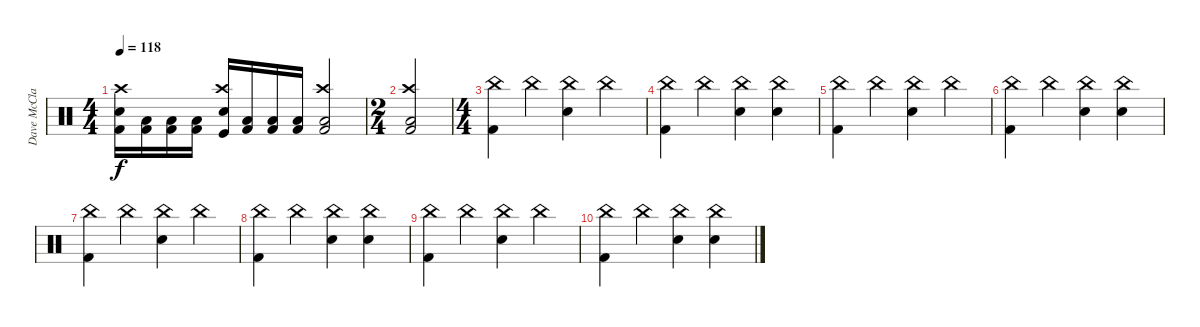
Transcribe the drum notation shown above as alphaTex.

\track ("Dave McClain" "Dave McCla") {instrument percussion}
\staff {score}
\articulation defaults
\ts (4 4)
\tempo 118
\clef neutral
\ks c
("Kick (hit) 2" "Snare (hit) 2" "Crash high (hit)").16{dy f} ("Kick (hit) 2" "Low Floor Tom (hit)").16 ("Kick (hit) 2" "Low Floor Tom (hit)").16 ("Kick (hit) 2" "Low Floor Tom (hit)").16 ("Kick (hit)" "Snare (hit) 2" "Crash high (hit)").16 ("Kick (hit) 2" "Low Floor Tom (hit)").16 ("Kick (hit) 2" "Low Floor Tom (hit)").16 ("Kick (hit) 2" "Low Floor Tom (hit)").16 ("Kick (hit) 2" "Low Floor Tom (hit)" "Crash high (hit)").2 |
\ts (2 4)
("Kick (hit) 2" "Low Floor Tom (hit)" "Crash high (hit)").2 |
\ts (4 4)
("Kick (hit) 2" "China (hit)").4 "China (hit)".4 ("Snare (hit) 2" "China (hit)").4 "China (hit)".4 |
("Kick (hit) 2" "China (hit)").4 "China (hit)".4 ("Snare (hit) 2" "China (hit)").4 ("Snare (hit) 2" "China (hit)").4 |
("Kick (hit) 2" "China (hit)").4 "China (hit)".4 ("Snare (hit) 2" "China (hit)").4 "China (hit)".4 |
("Kick (hit) 2" "China (hit)").4 "China (hit)".4 ("Snare (hit) 2" "China (hit)").4 ("Snare (hit) 2" "China (hit)").4 |
("Kick (hit) 2" "China (hit)").4 "China (hit)".4 ("Snare (hit) 2" "China (hit)").4 "China (hit)".4 |
("Kick (hit) 2" "China (hit)").4 "China (hit)".4 ("Snare (hit) 2" "China (hit)").4 ("Snare (hit) 2" "China (hit)").4 |
("Kick (hit) 2" "China (hit)").4 "China (hit)".4 ("Snare (hit) 2" "China (hit)").4 "China (hit)".4 |
("Kick (hit) 2" "China (hit)").4 "China (hit)".4 ("Snare (hit) 2" "China (hit)").4 ("Snare (hit) 2" "China (hit)").4
